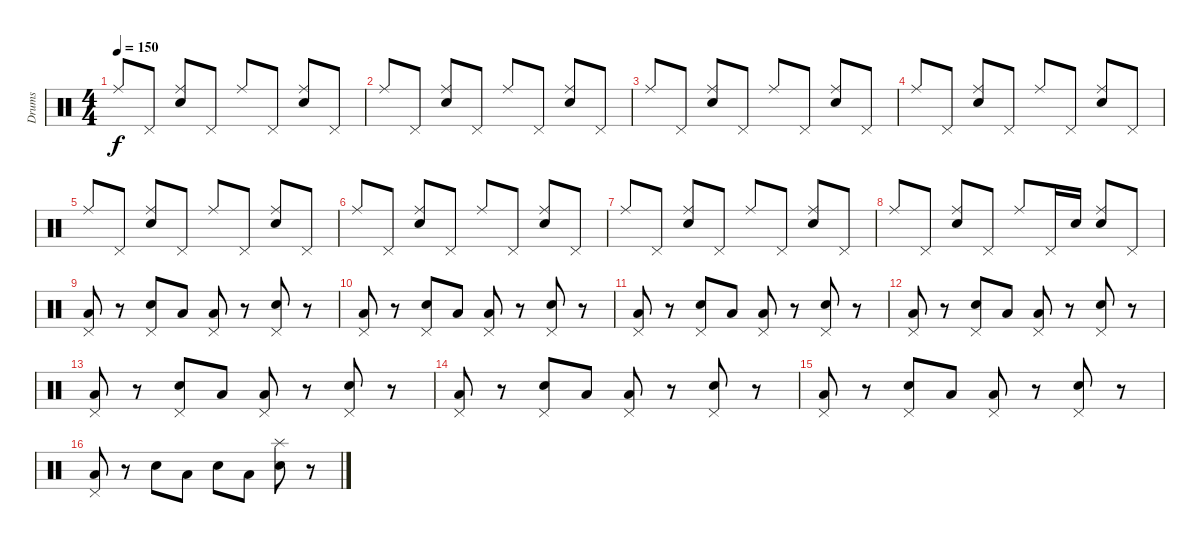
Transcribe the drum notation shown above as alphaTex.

\track ("Drums" "Drums") {instrument percussion}
\staff {score}
\articulation defaults
\ts (4 4)
\tempo 150
\clef neutral
\ks c "Ride (middle)".8{dy f} "Pedal Hi-Hat (hit)".8
("Ride (middle)" "Electric Snare (hit)").8 "Pedal Hi-Hat (hit)".8 "Ride (middle)".8 "Pedal Hi-Hat (hit)".8 ("Ride (middle)" "Electric Snare (hit)").8 "Pedal Hi-Hat (hit)".8 |
"Ride (middle)".8 "Pedal Hi-Hat (hit)".8 ("Ride (middle)" "Electric Snare (hit)").8 "Pedal Hi-Hat (hit)".8 "Ride (middle)".8 "Pedal Hi-Hat (hit)".8 ("Ride (middle)" "Electric Snare (hit)").8 "Pedal Hi-Hat (hit)".8 |
"Ride (middle)".8 "Pedal Hi-Hat (hit)".8 ("Ride (middle)" "Electric Snare (hit)").8 "Pedal Hi-Hat (hit)".8 "Ride (middle)".8 "Pedal Hi-Hat (hit)".8 ("Ride (middle)" "Electric Snare (hit)").8 "Pedal Hi-Hat (hit)".8 |
"Ride (middle)".8 "Pedal Hi-Hat (hit)".8 ("Ride (middle)" "Electric Snare (hit)").8 "Pedal Hi-Hat (hit)".8 "Ride (middle)".8 "Pedal Hi-Hat (hit)".8 ("Ride (middle)" "Electric Snare (hit)").8 "Pedal Hi-Hat (hit)".8 |
"Ride (middle)".8 "Pedal Hi-Hat (hit)".8 ("Ride (middle)" "Electric Snare (hit)").8 "Pedal Hi-Hat (hit)".8 "Ride (middle)".8 "Pedal Hi-Hat (hit)".8 ("Ride (middle)" "Electric Snare (hit)").8 "Pedal Hi-Hat (hit)".8 |
"Ride (middle)".8 "Pedal Hi-Hat (hit)".8 ("Ride (middle)" "Electric Snare (hit)").8 "Pedal Hi-Hat (hit)".8 "Ride (middle)".8 "Pedal Hi-Hat (hit)".8 ("Ride (middle)" "Electric Snare (hit)").8 "Pedal Hi-Hat (hit)".8 |
"Ride (middle)".8 "Pedal Hi-Hat (hit)".8 ("Ride (middle)" "Electric Snare (hit)").8 "Pedal Hi-Hat (hit)".8 "Ride (middle)".8 "Pedal Hi-Hat (hit)".8 ("Ride (middle)" "Electric Snare (hit)").8 "Pedal Hi-Hat (hit)".8 |
"Ride (middle)".8 "Pedal Hi-Hat (hit)".8 ("Ride (middle)" "Electric Snare (hit)").8 "Pedal Hi-Hat (hit)".8 "Ride (middle)".8 "Pedal Hi-Hat (hit)".16 "Electric Snare (hit)".16 ("Ride (middle)" "Electric Snare (hit)").8 "Pedal Hi-Hat (hit)".8 |
("Pedal Hi-Hat (hit)" "Low Tom (hit)").8 r.8 ("Pedal Hi-Hat (hit)" "Electric Snare (hit)").8 "Low Tom (hit)".8 ("Pedal Hi-Hat (hit)" "Low Tom (hit)").8 r.8 ("Pedal Hi-Hat (hit)" "Electric Snare (hit)").8 r.8 |
("Pedal Hi-Hat (hit)" "Low Tom (hit)").8 r.8 ("Pedal Hi-Hat (hit)" "Electric Snare (hit)").8 "Low Tom (hit)".8 ("Pedal Hi-Hat (hit)" "Low Tom (hit)").8 r.8 ("Pedal Hi-Hat (hit)" "Electric Snare (hit)").8 r.8 |
("Pedal Hi-Hat (hit)" "Low Tom (hit)").8 r.8 ("Pedal Hi-Hat (hit)" "Electric Snare (hit)").8 "Low Tom (hit)".8 ("Pedal Hi-Hat (hit)" "Low Tom (hit)").8 r.8 ("Pedal Hi-Hat (hit)" "Electric Snare (hit)").8 r.8 |
("Pedal Hi-Hat (hit)" "Low Tom (hit)").8 r.8 ("Pedal Hi-Hat (hit)" "Electric Snare (hit)").8 "Low Tom (hit)".8 ("Pedal Hi-Hat (hit)" "Low Tom (hit)").8 r.8 ("Pedal Hi-Hat (hit)" "Electric Snare (hit)").8 r.8 |
("Pedal Hi-Hat (hit)" "Low Tom (hit)").8 r.8 ("Pedal Hi-Hat (hit)" "Electric Snare (hit)").8 "Low Tom (hit)".8 ("Pedal Hi-Hat (hit)" "Low Tom (hit)").8 r.8 ("Pedal Hi-Hat (hit)" "Electric Snare (hit)").8 r.8 |
("Pedal Hi-Hat (hit)" "Low Tom (hit)").8 r.8 ("Pedal Hi-Hat (hit)" "Electric Snare (hit)").8 "Low Tom (hit)".8 ("Pedal Hi-Hat (hit)" "Low Tom (hit)").8 r.8 ("Pedal Hi-Hat (hit)" "Electric Snare (hit)").8 r.8 |
("Pedal Hi-Hat (hit)" "Low Tom (hit)").8 r.8 ("Pedal Hi-Hat (hit)" "Electric Snare (hit)").8 "Low Tom (hit)".8 ("Pedal Hi-Hat (hit)" "Low Tom (hit)").8 r.8 ("Pedal Hi-Hat (hit)" "Electric Snare (hit)").8 r.8 |
("Pedal Hi-Hat (hit)" "Low Tom (hit)").8 r.8 "Electric Snare (hit)".8 "Low Tom (hit)".8 "Electric Snare (hit)".8 "Low Tom (hit)".8 ("Splash (hit)" "Electric Snare (hit)").8 r.8
